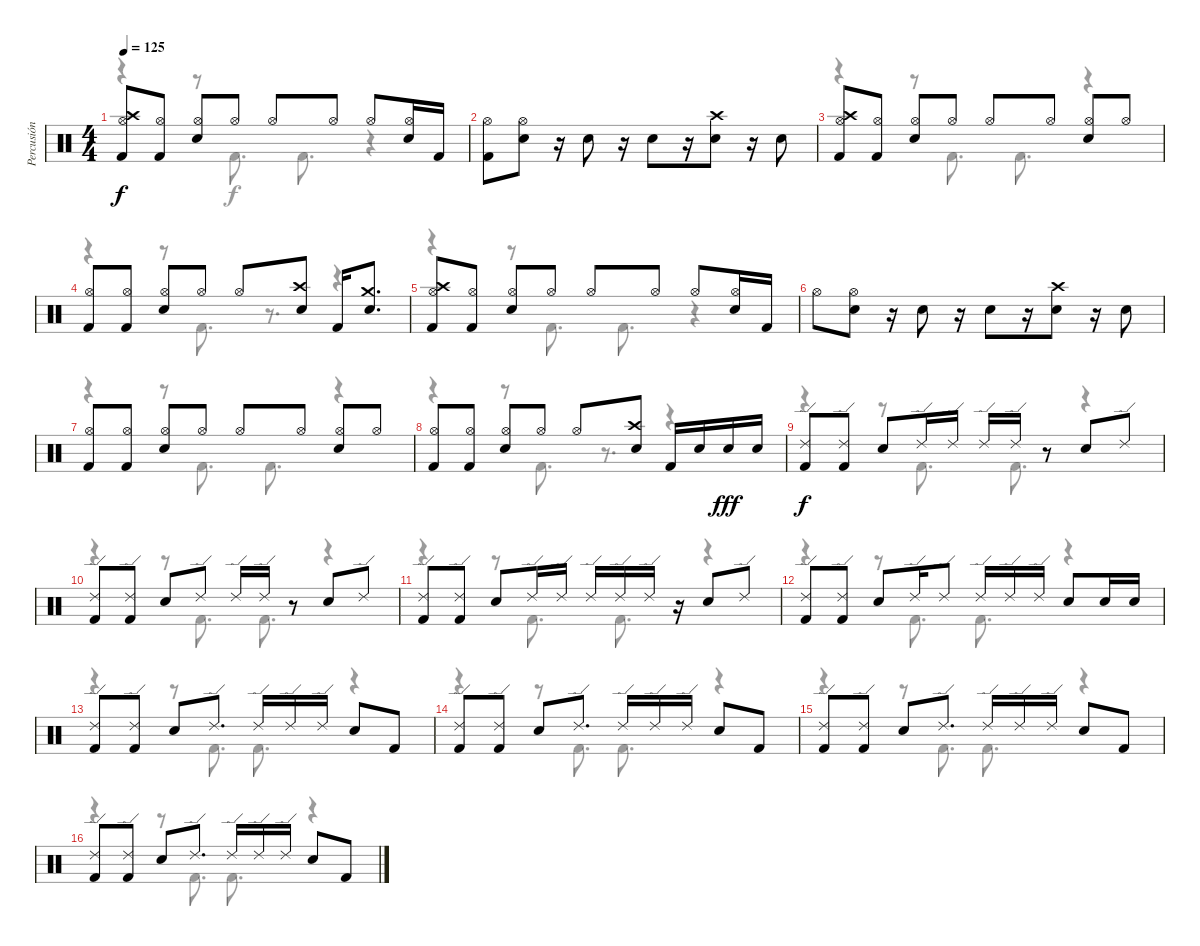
\track ("Percusión" "Percusión") {instrument percussion}
\staff {score}
\articulation defaults
\voice
\ts (4 4)
\tempo 125
\clef neutral
\ks c
("Hi-Hat (open)" "Kick (hit) 2" "Crash high (hit)").8{dy f} ("Hi-Hat (open)" "Kick (hit) 2").8 ("Hi-Hat (open)" "Electric Snare (hit)").8 "Hi-Hat (open)".8 "Hi-Hat (open)".8 "Hi-Hat (open)".8 "Hi-Hat (open)".8 ("Hi-Hat (open)" "Electric Snare (hit)").16 "Kick (hit) 2".16 |
("Hi-Hat (open)" "Kick (hit) 2").8 ("Hi-Hat (open)" "Electric Snare (hit)").8 r.16 "Electric Snare (hit)".8 r.16 "Electric Snare (hit)".8 r.16 ("Crash high (hit)" "Electric Snare (hit)").8 r.16 "Electric Snare (hit)".8 |
("Hi-Hat (open)" "Kick (hit) 2" "Crash high (hit)").8 ("Hi-Hat (open)" "Kick (hit) 2").8 ("Hi-Hat (open)" "Electric Snare (hit)").8 "Hi-Hat (open)".8 "Hi-Hat (open)".8 "Hi-Hat (open)".8 ("Hi-Hat (open)" "Electric Snare (hit)").8 "Hi-Hat (open)".8 |
("Hi-Hat (open)" "Kick (hit) 2").8 ("Hi-Hat (open)" "Kick (hit) 2").8 ("Hi-Hat (open)" "Electric Snare (hit)").8 "Hi-Hat (open)".8 "Hi-Hat (open)".8 ("Crash high (hit)" "Electric Snare (hit)").8 "Kick (hit) 2".16 ("Crash medium (hit)" "Electric Snare (hit)").8{d} |
("Hi-Hat (open)" "Kick (hit) 2" "Crash high (hit)").8 ("Hi-Hat (open)" "Kick (hit) 2").8 ("Hi-Hat (open)" "Electric Snare (hit)").8 "Hi-Hat (open)".8 "Hi-Hat (open)".8 "Hi-Hat (open)".8 "Hi-Hat (open)".8 ("Hi-Hat (open)" "Electric Snare (hit)").16 "Kick (hit) 2".16 |
"Hi-Hat (open)".8 ("Hi-Hat (open)" "Electric Snare (hit)").8 r.16 "Electric Snare (hit)".8 r.16 "Electric Snare (hit)".8 r.16 ("Crash high (hit)" "Electric Snare (hit)").8 r.16 "Electric Snare (hit)".8 |
("Hi-Hat (open)" "Kick (hit) 2").8 ("Hi-Hat (open)" "Kick (hit) 2").8 ("Hi-Hat (open)" "Electric Snare (hit)").8 "Hi-Hat (open)".8 "Hi-Hat (open)".8 "Hi-Hat (open)".8 ("Hi-Hat (open)" "Electric Snare (hit)").8 "Hi-Hat (open)".8 |
("Hi-Hat (open)" "Kick (hit) 2").8 ("Hi-Hat (open)" "Kick (hit) 2").8 ("Hi-Hat (open)" "Electric Snare (hit)").8 "Hi-Hat (open)".8 "Hi-Hat (open)".8 ("Crash high (hit)" "Electric Snare (hit)").8 "Kick (hit) 2".16 "Electric Snare (hit)".16 "Electric Snare (hit)".16{dy fff} "Electric Snare (hit)".16 |
("Ride (edge) 2" "Kick (hit) 2").8{dy f} ("Ride (edge) 2" "Kick (hit) 2").8 "Electric Snare (hit)".8 "Ride (edge) 2".16 "Ride (edge) 2".16 "Ride (edge) 2".16 "Ride (edge) 2".16 r.8 "Electric Snare (hit)".8 "Ride (edge) 2".8 |
("Ride (edge) 2" "Kick (hit) 2").8 ("Ride (edge) 2" "Kick (hit) 2").8 "Electric Snare (hit)".8 "Ride (edge) 2".8 "Ride (edge) 2".16 "Ride (edge) 2".16 r.8 "Electric Snare (hit)".8 "Ride (edge) 2".8 |
("Ride (edge) 2" "Kick (hit) 2").8 ("Ride (edge) 2" "Kick (hit) 2").8 "Electric Snare (hit)".8 "Ride (edge) 2".16 "Ride (edge) 2".16 "Ride (edge) 2".16 "Ride (edge) 2".16 "Ride (edge) 2".16 r.16 "Electric Snare (hit)".8 "Ride (edge) 2".8 |
("Ride (edge) 2" "Kick (hit) 2").8 ("Ride (edge) 2" "Kick (hit) 2").8 "Electric Snare (hit)".8 "Ride (edge) 2".16 "Ride (edge) 2".8 "Ride (edge) 2".16 "Ride (edge) 2".16 "Ride (edge) 2".16 "Electric Snare (hit)".8 "Electric Snare (hit)".16 "Electric Snare (hit)".16 |
("Ride (edge) 2" "Kick (hit) 2").8 ("Ride (edge) 2" "Kick (hit) 2").8 "Electric Snare (hit)".8 "Ride (edge) 2".8{d} "Ride (edge) 2".16 "Ride (edge) 2".16 "Ride (edge) 2".16 "Electric Snare (hit)".8 "Kick (hit) 2".8 |
("Ride (edge) 2" "Kick (hit) 2").8 ("Ride (edge) 2" "Kick (hit) 2").8 "Electric Snare (hit)".8 "Ride (edge) 2".8{d} "Ride (edge) 2".16 "Ride (edge) 2".16 "Ride (edge) 2".16 "Electric Snare (hit)".8 "Kick (hit) 2".8 |
("Ride (edge) 2" "Kick (hit) 2").8 ("Ride (edge) 2" "Kick (hit) 2").8 "Electric Snare (hit)".8 "Ride (edge) 2".8{d} "Ride (edge) 2".16 "Ride (edge) 2".16 "Ride (edge) 2".16 "Electric Snare (hit)".8 "Kick (hit) 2".8 |
("Ride (edge) 2" "Kick (hit) 2").8 ("Ride (edge) 2" "Kick (hit) 2").8 "Electric Snare (hit)".8 "Ride (edge) 2".8{d} "Ride (edge) 2".16 "Ride (edge) 2".16 "Ride (edge) 2".16 "Electric Snare (hit)".8 "Kick (hit) 2".8
\voice
\clef neutral
\ottava regular
\simile none
\ks c
r.4{dy f} r.8 "Kick (hit) 2".8{d} "Kick (hit) 2".8{d} r.4 |
|
r.4 r.8 "Kick (hit) 2".8{d} "Kick (hit) 2".8{d} r.4 |
r.4 r.8 "Kick (hit) 2".8{d} r.8{d} r.4 |
r.4 r.8 "Kick (hit) 2".8{d} "Kick (hit) 2".8{d} r.4 |
|
r.4 r.8 "Kick (hit) 2".8{d} "Kick (hit) 2".8{d} r.4 |
r.4 r.8 "Kick (hit) 2".8{d} r.8{d} r.4 |
r.4 r.8 "Kick (hit) 2".8{d} "Kick (hit) 2".8{d} r.4 |
r.4 r.8 "Kick (hit) 2".8{d} "Kick (hit) 2".8{d} r.4 |
r.4 r.8 "Kick (hit) 2".8{d} "Kick (hit) 2".8{d} r.4 |
r.4 r.8 "Kick (hit) 2".8{d} "Kick (hit) 2".8{d} r.4 |
r.4 r.8 "Kick (hit) 2".8{d} "Kick (hit) 2".8{d} r.4 |
r.4 r.8 "Kick (hit) 2".8{d} "Kick (hit) 2".8{d} r.4 |
r.4 r.8 "Kick (hit) 2".8{d} "Kick (hit) 2".8{d} r.4 |
r.4 r.8 "Kick (hit) 2".8{d} "Kick (hit) 2".8{d} r.4
